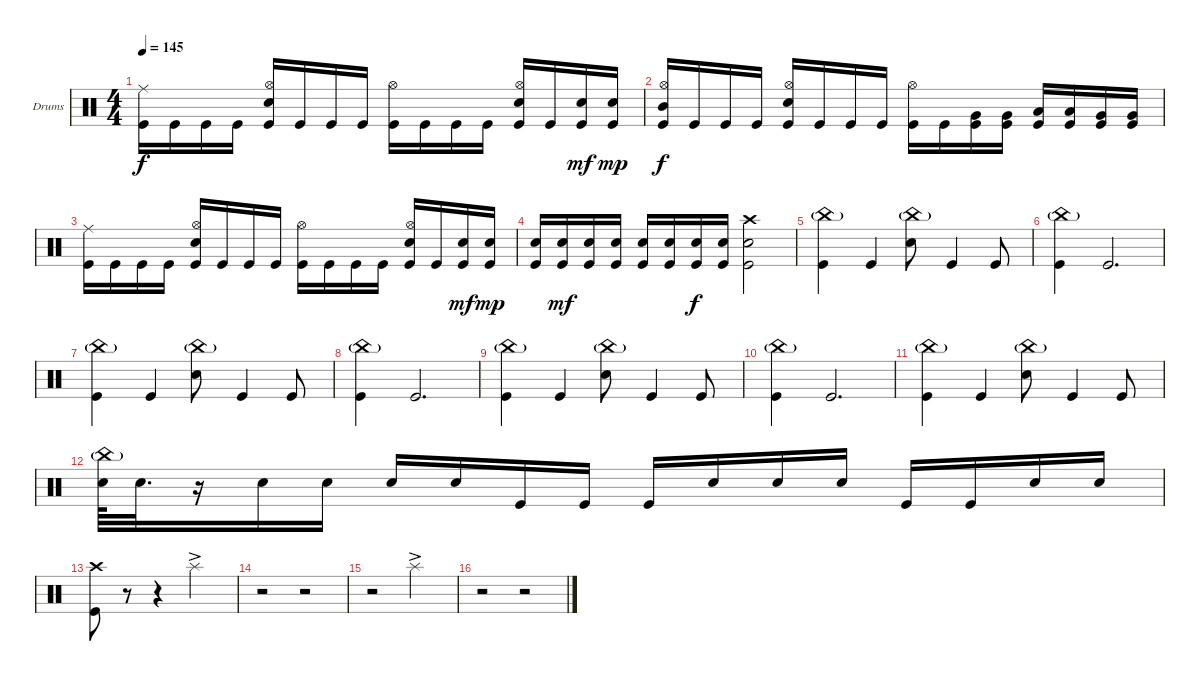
\bracketExtendMode groupsimilarinstruments
\firstSystemTrackNameOrientation horizontal
\otherSystemsTrackNameOrientation horizontal
\track ("Drumkit" "Drums") {instrument percussion}
\staff {score}
\articulation defaults
\ts (4 4)
\tempo 145
\clef neutral
\ks c
("Ride (middle)" "Kick (hit)").16{dy f} "Kick (hit)".16 "Kick (hit)".16 "Kick (hit)".16 ("Hi-Hat (open)" "Snare (hit) 2" "Kick (hit)").16 "Kick (hit)".16 "Kick (hit)".16 "Kick (hit)".16 ("Hi-Hat (open)" "Kick (hit)").16 "Kick (hit)".16 "Kick (hit)".16 "Kick (hit)".16 ("Hi-Hat (open)" "Snare (hit) 2" "Kick (hit)").16 "Kick (hit)".16 ("Snare (hit) 2" "Kick (hit)").16{dy mf} ("Snare (hit) 2" "Kick (hit)").16{dy mp} |
("Hi-Hat (open)" "Mid Tom (hit)" "Kick (hit)").16{dy f} "Kick (hit)".16 "Kick (hit)".16 "Kick (hit)".16 ("Hi-Hat (open)" "Snare (hit) 2" "Kick (hit)").16 "Kick (hit)".16 "Kick (hit)".16 "Kick (hit)".16 ("Hi-Hat (open)" "Kick (hit)").16 "Kick (hit)".16 ("Very Low Tom (hit)" "Kick (hit)").16 ("Very Low Tom (hit)" "Kick (hit)").16 ("Low Tom (hit)" "Kick (hit)").16 ("Low Tom (hit)" "Kick (hit)").16 ("Very Low Tom (hit)" "Kick (hit)").16 ("Very Low Tom (hit)" "Kick (hit)").16 |
("Ride (middle)" "Kick (hit)").16 "Kick (hit)".16 "Kick (hit)".16 "Kick (hit)".16 ("Hi-Hat (open)" "Snare (hit) 2" "Kick (hit)").16 "Kick (hit)".16 "Kick (hit)".16 "Kick (hit)".16 ("Hi-Hat (open)" "Kick (hit)").16 "Kick (hit)".16 "Kick (hit)".16 "Kick (hit)".16 ("Hi-Hat (open)" "Snare (hit) 2" "Kick (hit)").16 "Kick (hit)".16 ("Snare (hit) 2" "Kick (hit)").16{dy mf} ("Snare (hit) 2" "Kick (hit)").16{dy mp} |
("Snare (hit) 2" "Kick (hit)").16 ("Snare (hit) 2" "Kick (hit)").16{dy mf} ("Snare (hit) 2" "Kick (hit)").16 ("Snare (hit) 2" "Kick (hit)").16 ("Snare (hit) 2" "Kick (hit)").16 ("Snare (hit) 2" "Kick (hit)").16 ("Snare (hit) 2" "Kick (hit)").16{dy f} ("Snare (hit) 2" "Kick (hit)").16 ("Crash high (hit)" "Snare (hit) 2" "Kick (hit)").2 |
("China (hit)"{g} "Kick (hit)").4 "Kick (hit)".4 ("China (hit)"{g} "Snare (hit) 2").8 "Kick (hit)".4 "Kick (hit)".8 |
("China (hit)"{g} "Kick (hit)").4 "Kick (hit)".2{d} |
("China (hit)"{g} "Kick (hit)").4 "Kick (hit)".4 ("China (hit)"{g} "Snare (hit) 2").8 "Kick (hit)".4 "Kick (hit)".8 |
("China (hit)"{g} "Kick (hit)").4 "Kick (hit)".2{d} |
("China (hit)"{g} "Kick (hit)").4 "Kick (hit)".4 ("China (hit)"{g} "Snare (hit) 2").8 "Kick (hit)".4 "Kick (hit)".8 |
("China (hit)"{g} "Kick (hit)").4 "Kick (hit)".2{d} |
("China (hit)"{g} "Kick (hit)").4 "Kick (hit)".4 ("China (hit)"{g} "Snare (hit) 2").8 "Kick (hit)".4 "Kick (hit)".8 |
("China (hit)"{g} "Snare (hit) 2").64 "Snare (hit) 2".32{d} r.16 "Snare (hit) 2".16 "Snare (hit) 2".16 "Snare (hit) 2".16 "Snare (hit) 2".16 "Kick (hit)".16 "Kick (hit)".16 "Kick (hit)".16 "Snare (hit) 2".16 "Snare (hit) 2".16 "Snare (hit) 2".16 "Kick (hit)".16 "Kick (hit)".16 "Snare (hit) 2".16 "Snare (hit) 2".16 |
("Crash high (hit)" "Kick (hit)").8 r.8 r.4 "Splash (hit)"{ac}.2 |
r.2 r.2 |
r.2 "Splash (hit)"{ac}.2 |
r.2 r.2
